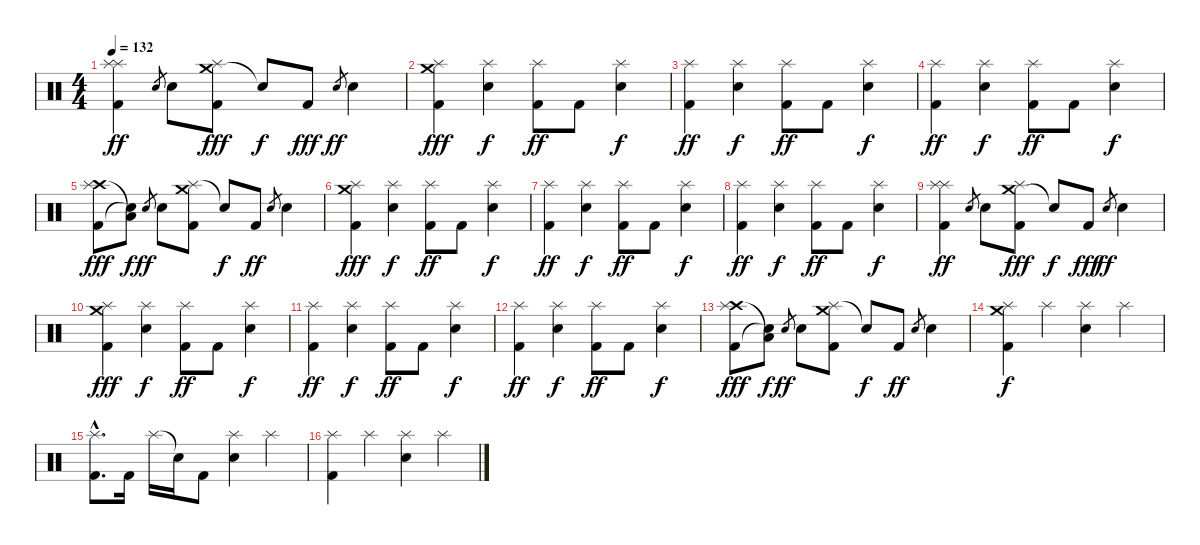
\track "" {instrument percussion}
\staff {score}
\articulation defaults
\ts (4 4)
\tempo 132
\clef neutral
\ks c
("Splash (hit)" "Kick (hit) 2" "Splash (hit)").4{dy ff} "Electric Snare (hit)".8{gr} "Electric Snare (hit)".8 ("Crash medium (hit)" "Kick (hit) 2" "Splash (hit)").8{dy fff} "Snare (hit)"{t}.8{dy f} "Kick (hit) 2".8{dy fff} "Electric Snare (hit)".8{gr dy ff} "Electric Snare (hit)".4 |
("Splash (hit)" "Kick (hit) 2" "Crash medium (hit)").4{dy fff} ("Splash (hit)" "Electric Snare (hit)").4{dy f} ("Splash (hit)" "Kick (hit) 2").8{dy ff} "Kick (hit) 2".8 ("Splash (hit)" "Electric Snare (hit)").4{dy f} |
("Splash (hit)" "Kick (hit) 2").4{dy ff} ("Splash (hit)" "Electric Snare (hit)").4{dy f} ("Splash (hit)" "Kick (hit) 2").8{dy ff} "Kick (hit) 2".8 ("Splash (hit)" "Electric Snare (hit)").4{dy f} |
("Splash (hit)" "Kick (hit) 2").4{dy ff} ("Splash (hit)" "Electric Snare (hit)").4{dy f} ("Splash (hit)" "Kick (hit) 2").8{dy ff} "Kick (hit) 2".8 ("Splash (hit)" "Electric Snare (hit)").4{dy f} |
("Crash high (hit)" "Kick (hit) 2" "Splash (hit)").8{dy fff} ("Low Tom (hit)"{t} "Snare (hit)"{t}).8{dy f} "Electric Snare (hit)".8{gr dy ff} "Electric Snare (hit)".8 ("Splash (hit)" "Kick (hit) 2" "Crash medium (hit)").8 "Snare (hit)"{t}.8{dy f} "Kick (hit) 2".8{dy ff} "Electric Snare (hit)".8{gr} "Electric Snare (hit)".4 |
("Splash (hit)" "Kick (hit) 2" "Crash medium (hit)").4{dy fff} ("Splash (hit)" "Electric Snare (hit)").4{dy f} ("Splash (hit)" "Kick (hit) 2").8{dy ff} "Kick (hit) 2".8 ("Splash (hit)" "Electric Snare (hit)").4{dy f} |
("Splash (hit)" "Kick (hit) 2").4{dy ff} ("Splash (hit)" "Electric Snare (hit)").4{dy f} ("Splash (hit)" "Kick (hit) 2").8{dy ff} "Kick (hit) 2".8 ("Splash (hit)" "Electric Snare (hit)").4{dy f} |
("Splash (hit)" "Kick (hit) 2").4{dy ff} ("Splash (hit)" "Electric Snare (hit)").4{dy f} ("Splash (hit)" "Kick (hit) 2").8{dy ff} "Kick (hit) 2".8 ("Splash (hit)" "Electric Snare (hit)").4{dy f} |
("Splash (hit)" "Kick (hit) 2" "Splash (hit)").4{dy ff} "Electric Snare (hit)".8{gr} "Electric Snare (hit)".8 ("Crash medium (hit)" "Kick (hit) 2" "Splash (hit)").8{dy fff} "Snare (hit)"{t}.8{dy f} "Kick (hit) 2".8{dy fff} "Electric Snare (hit)".8{gr dy ff} "Electric Snare (hit)".4 |
("Splash (hit)" "Kick (hit) 2" "Crash medium (hit)").4{dy fff} ("Splash (hit)" "Electric Snare (hit)").4{dy f} ("Splash (hit)" "Kick (hit) 2").8{dy ff} "Kick (hit) 2".8 ("Splash (hit)" "Electric Snare (hit)").4{dy f} |
("Splash (hit)" "Kick (hit) 2").4{dy ff} ("Splash (hit)" "Electric Snare (hit)").4{dy f} ("Splash (hit)" "Kick (hit) 2").8{dy ff} "Kick (hit) 2".8 ("Splash (hit)" "Electric Snare (hit)").4{dy f} |
("Splash (hit)" "Kick (hit) 2").4{dy ff} ("Splash (hit)" "Electric Snare (hit)").4{dy f} ("Splash (hit)" "Kick (hit) 2").8{dy ff} "Kick (hit) 2".8 ("Splash (hit)" "Electric Snare (hit)").4{dy f} |
("Crash high (hit)" "Kick (hit) 2" "Splash (hit)").8{dy fff} ("Low Tom (hit)"{t} "Snare (hit)"{t}).8{dy f} "Electric Snare (hit)".8{gr dy ff} "Electric Snare (hit)".8 ("Splash (hit)" "Kick (hit) 2" "Crash medium (hit)").8 "Snare (hit)"{t}.8{dy f} "Kick (hit) 2".8{dy ff} "Electric Snare (hit)".8{gr} "Electric Snare (hit)".4 |
("Splash (hit)" "Kick (hit) 2" "Crash medium (hit)").4{dy f} "Splash (hit)".4 ("Splash (hit)" "Electric Snare (hit)").4 "Splash (hit)".4 |
("Splash (hit)"{hac} "Kick (hit) 2"{hac}).8{d} "Kick (hit) 2".16 "Splash (hit)".16 "Snare (hit)"{t}.16 "Kick (hit) 2".8 ("Splash (hit)" "Electric Snare (hit)").4 "Splash (hit)".4 |
("Splash (hit)" "Kick (hit) 2").4 "Splash (hit)".4 ("Splash (hit)" "Electric Snare (hit)").4 "Splash (hit)".4
